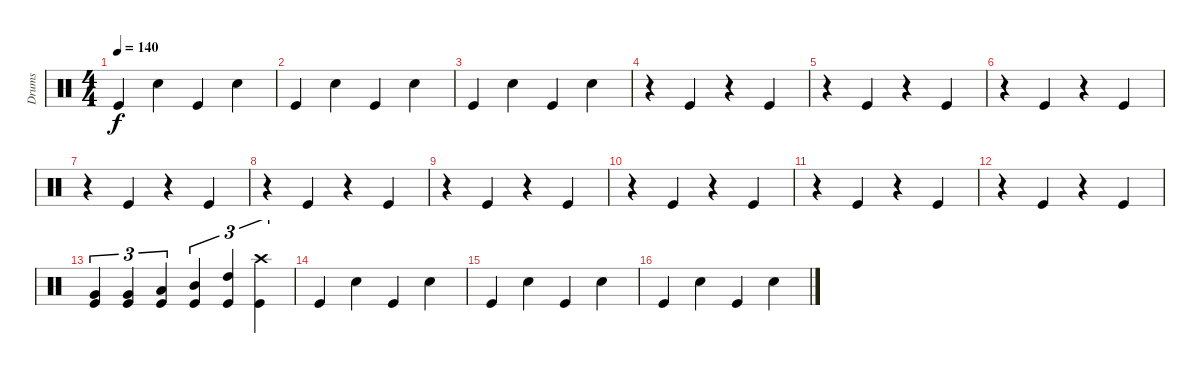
\track ("Drums" "Drums") {instrument percussion}
\staff {score}
\articulation defaults
\ts (4 4)
\tempo 140
\clef neutral
\ks c "Kick (hit)".4{dy f} "Snare (hit) 2".4 "Kick (hit)".4 "Snare (hit) 2".4
|
"Kick (hit)".4 "Snare (hit) 2".4 "Kick (hit)".4 "Snare (hit) 2".4 |
"Kick (hit)".4 "Snare (hit) 2".4 "Kick (hit)".4 "Snare (hit) 2".4 |
r.4 "Kick (hit)".4 r.4 "Kick (hit)".4 |
r.4 "Kick (hit)".4 r.4 "Kick (hit)".4 |
r.4 "Kick (hit)".4 r.4 "Kick (hit)".4 |
r.4 "Kick (hit)".4 r.4 "Kick (hit)".4 |
r.4 "Kick (hit)".4 r.4 "Kick (hit)".4 |
r.4 "Kick (hit)".4 r.4 "Kick (hit)".4 |
r.4 "Kick (hit)".4 r.4 "Kick (hit)".4 |
r.4 "Kick (hit)".4 r.4 "Kick (hit)".4 |
r.4 "Kick (hit)".4 r.4 "Kick (hit)".4 |
("Very Low Tom (hit)" "Kick (hit)").4{tu (3 2)} ("Very Low Tom (hit)" "Kick (hit)").4{tu (3 2)} ("Low Floor Tom (hit)" "Kick (hit)").4{tu (3 2)} ("Mid Tom (hit)" "Kick (hit)").4{tu (3 2)} ("High Tom (hit)" "Kick (hit)").4{tu (3 2)} ("Crash high (hit)" "Kick (hit)").4{tu (3 2)} |
"Kick (hit)".4 "Snare (hit) 2".4 "Kick (hit)".4 "Snare (hit) 2".4 |
"Kick (hit)".4 "Snare (hit) 2".4 "Kick (hit)".4 "Snare (hit) 2".4 |
"Kick (hit)".4 "Snare (hit) 2".4 "Kick (hit)".4 "Snare (hit) 2".4
